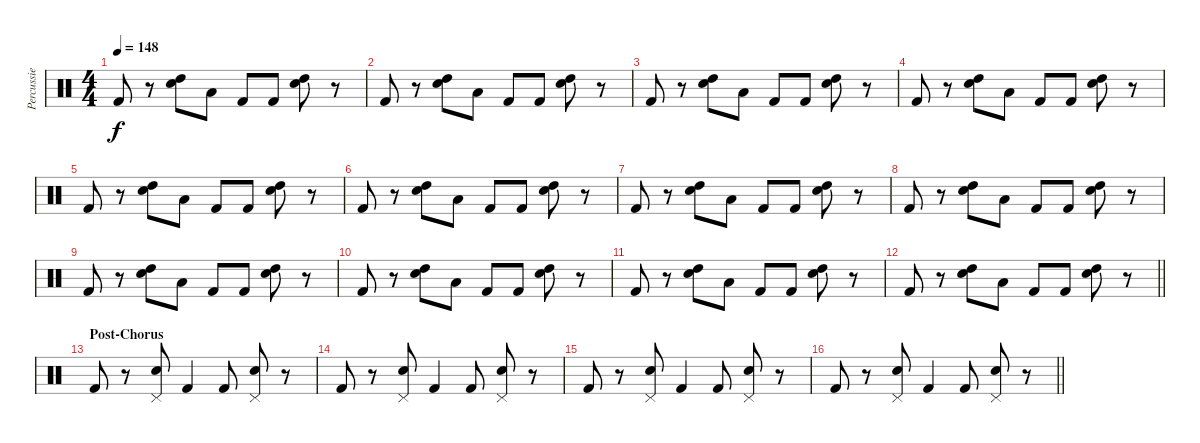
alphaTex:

\track ("Percussie" "Percussie") {instrument percussion}
\staff {score}
\articulation defaults
\ts (4 4)
\tempo 148
\clef neutral
\ks c "Kick (hit) 2".8{dy f}
r.8 ("Electric Snare (hit)" "High Tom (hit)").8 "Low Tom (hit)".8 "Kick (hit) 2".8 "Kick (hit) 2".8 ("Electric Snare (hit)" "High Tom (hit)").8 r.8 |
"Kick (hit) 2".8 r.8 ("Electric Snare (hit)" "High Tom (hit)").8 "Low Tom (hit)".8 "Kick (hit) 2".8 "Kick (hit) 2".8 ("Electric Snare (hit)" "High Tom (hit)").8 r.8 |
"Kick (hit) 2".8 r.8 ("Electric Snare (hit)" "High Tom (hit)").8 "Low Tom (hit)".8 "Kick (hit) 2".8 "Kick (hit) 2".8 ("Electric Snare (hit)" "High Tom (hit)").8 r.8 |
"Kick (hit) 2".8 r.8 ("Electric Snare (hit)" "High Tom (hit)").8 "Low Tom (hit)".8 "Kick (hit) 2".8 "Kick (hit) 2".8 ("Electric Snare (hit)" "High Tom (hit)").8 r.8 |
"Kick (hit) 2".8 r.8 ("Electric Snare (hit)" "High Tom (hit)").8 "Low Tom (hit)".8 "Kick (hit) 2".8 "Kick (hit) 2".8 ("Electric Snare (hit)" "High Tom (hit)").8 r.8 |
"Kick (hit) 2".8 r.8 ("Electric Snare (hit)" "High Tom (hit)").8 "Low Tom (hit)".8 "Kick (hit) 2".8 "Kick (hit) 2".8 ("Electric Snare (hit)" "High Tom (hit)").8 r.8 |
"Kick (hit) 2".8 r.8 ("Electric Snare (hit)" "High Tom (hit)").8 "Low Tom (hit)".8 "Kick (hit) 2".8 "Kick (hit) 2".8 ("Electric Snare (hit)" "High Tom (hit)").8 r.8 |
"Kick (hit) 2".8 r.8 ("Electric Snare (hit)" "High Tom (hit)").8 "Low Tom (hit)".8 "Kick (hit) 2".8 "Kick (hit) 2".8 ("Electric Snare (hit)" "High Tom (hit)").8 r.8 |
"Kick (hit) 2".8 r.8 ("Electric Snare (hit)" "High Tom (hit)").8 "Low Tom (hit)".8 "Kick (hit) 2".8 "Kick (hit) 2".8 ("Electric Snare (hit)" "High Tom (hit)").8 r.8 |
"Kick (hit) 2".8 r.8 ("Electric Snare (hit)" "High Tom (hit)").8 "Low Tom (hit)".8 "Kick (hit) 2".8 "Kick (hit) 2".8 ("Electric Snare (hit)" "High Tom (hit)").8 r.8 |
"Kick (hit) 2".8 r.8 ("Electric Snare (hit)" "High Tom (hit)").8 "Low Tom (hit)".8 "Kick (hit) 2".8 "Kick (hit) 2".8 ("Electric Snare (hit)" "High Tom (hit)").8 r.8 |
\barLineRight lightlight "Kick (hit) 2".8
r.8 ("Electric Snare (hit)" "High Tom (hit)").8 "Low Tom (hit)".8 "Kick (hit) 2".8 "Kick (hit) 2".8 ("Electric Snare (hit)" "High Tom (hit)").8 r.8 |
\section ("" "Post-Chorus")
"Kick (hit) 2".8 r.8 ("Pedal Hi-Hat (hit)" "Electric Snare (hit)").8 "Kick (hit) 2".4 "Kick (hit) 2".8 ("Pedal Hi-Hat (hit)" "Electric Snare (hit)").8 r.8 |
"Kick (hit) 2".8 r.8 ("Pedal Hi-Hat (hit)" "Electric Snare (hit)").8 "Kick (hit) 2".4 "Kick (hit) 2".8 ("Pedal Hi-Hat (hit)" "Electric Snare (hit)").8 r.8 |
"Kick (hit) 2".8 r.8 ("Pedal Hi-Hat (hit)" "Electric Snare (hit)").8 "Kick (hit) 2".4 "Kick (hit) 2".8 ("Pedal Hi-Hat (hit)" "Electric Snare (hit)").8 r.8 |
\barLineRight lightlight "Kick (hit) 2".8
r.8 ("Pedal Hi-Hat (hit)" "Electric Snare (hit)").8 "Kick (hit) 2".4 "Kick (hit) 2".8 ("Pedal Hi-Hat (hit)" "Electric Snare (hit)").8 r.8
